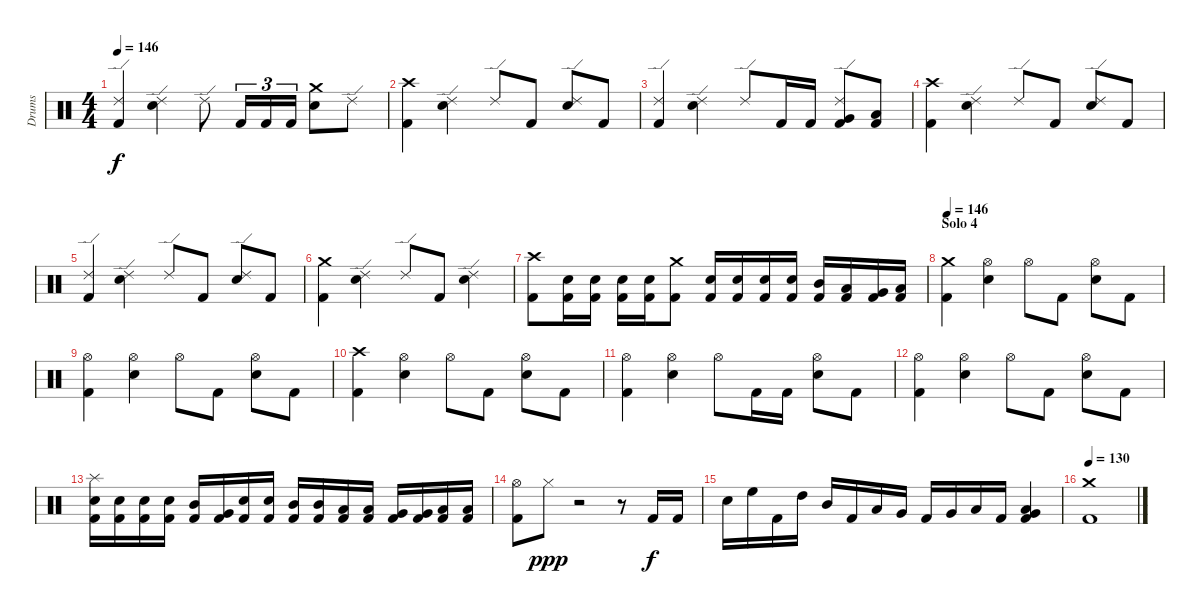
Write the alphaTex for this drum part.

\track ("Drums" "Drums") {instrument percussion}
\staff {score}
\articulation defaults
\ts (4 4)
\tempo 146
\clef neutral
\ks c
("Kick (hit) 2" "Ride (edge) 2").4{dy f} ("Snare (hit) 2" "Ride (edge) 2").4 "Ride (edge) 2".8 "Kick (hit) 2".16{tu (3 2)} "Kick (hit) 2".16{tu (3 2)} "Kick (hit) 2".16{tu (3 2)} ("Snare (hit) 2" "Crash medium (hit)").8 "Ride (edge) 2".8 |
("Kick (hit) 2" "Crash high (hit)").4 ("Snare (hit) 2" "Ride (edge) 2").4 "Ride (edge) 2".8 "Kick (hit) 2".8 ("Snare (hit) 2" "Ride (edge) 2").8 "Kick (hit) 2".8 |
("Kick (hit) 2" "Ride (edge) 2").4 ("Snare (hit) 2" "Ride (edge) 2").4 "Ride (edge) 2".8 "Kick (hit) 2".16 "Kick (hit) 2".16 ("Kick (hit) 2" "Very Low Tom (hit)" "Ride (edge) 2").8 ("Kick (hit) 2" "Low Floor Tom (hit)").8 |
("Kick (hit) 2" "Crash high (hit)").4 ("Snare (hit) 2" "Ride (edge) 2").4 "Ride (edge) 2".8 "Kick (hit) 2".8 ("Snare (hit) 2" "Ride (edge) 2").8 "Kick (hit) 2".8 |
("Kick (hit) 2" "Ride (edge) 2").4 ("Snare (hit) 2" "Ride (edge) 2").4 "Ride (edge) 2".8 "Kick (hit) 2".8 ("Snare (hit) 2" "Ride (edge) 2").8 "Kick (hit) 2".8 |
("Kick (hit) 2" "Crash medium (hit)").4 ("Snare (hit) 2" "Ride (edge) 2").4 "Ride (edge) 2".8 "Kick (hit) 2".8 ("Snare (hit) 2" "Ride (edge) 2").4 |
("Kick (hit) 2" "Crash high (hit)").8 ("Kick (hit) 2" "Snare (hit) 2").16 ("Kick (hit) 2" "Snare (hit) 2").16 ("Kick (hit) 2" "Snare (hit) 2").16 ("Kick (hit) 2" "Snare (hit) 2").16 ("Kick (hit) 2" "Crash medium (hit)").8 ("Kick (hit) 2" "Snare (hit) 2").16 ("Kick (hit) 2" "Snare (hit) 2").16 ("Kick (hit) 2" "Snare (hit) 2").16 ("Kick (hit) 2" "Snare (hit) 2").16 ("Kick (hit) 2" "Mid Tom (hit)").16 ("Kick (hit) 2" "Low Tom (hit)").16 ("Kick (hit) 2" "Very Low Tom (hit)").16 ("Kick (hit) 2" "Low Floor Tom (hit)").16 |
\section ("" "Solo 4")
\tempo 146
("Kick (hit) 2" "Crash medium (hit)").4 ("Snare (hit) 2" "Hi-Hat (open)").4 "Hi-Hat (open)".8 "Kick (hit) 2".8 ("Snare (hit) 2" "Hi-Hat (open)").8 "Kick (hit) 2".8 |
("Kick (hit) 2" "Hi-Hat (open)").4 ("Snare (hit) 2" "Hi-Hat (open)").4 "Hi-Hat (open)".8 "Kick (hit) 2".8 ("Snare (hit) 2" "Hi-Hat (open)").8 "Kick (hit) 2".8 |
("Kick (hit) 2" "Crash high (hit)").4 ("Snare (hit) 2" "Hi-Hat (open)").4 "Hi-Hat (open)".8 "Kick (hit) 2".8 ("Snare (hit) 2" "Hi-Hat (open)").8 "Kick (hit) 2".8 |
("Kick (hit) 2" "Hi-Hat (open)").4 ("Snare (hit) 2" "Hi-Hat (open)").4 "Hi-Hat (open)".8 "Kick (hit) 2".16 "Kick (hit) 2".16 ("Snare (hit) 2" "Hi-Hat (open)").8 "Kick (hit) 2".8 |
("Kick (hit) 2" "Hi-Hat (open)").4 ("Snare (hit) 2" "Hi-Hat (open)").4 "Hi-Hat (open)".8 "Kick (hit) 2".8 ("Snare (hit) 2" "Hi-Hat (open)").8 "Kick (hit) 2".8 |
("Kick (hit) 2" "Snare (hit) 2" "Splash (hit)").16 ("Kick (hit) 2" "Snare (hit) 2").16 ("Kick (hit) 2" "Snare (hit) 2").16 ("Kick (hit) 2" "Snare (hit) 2").16 ("Kick (hit) 2" "Mid Tom (hit)").16 ("Kick (hit) 2" "Very Low Tom (hit)").16 ("Kick (hit) 2" "Snare (hit) 2").16 ("Kick (hit) 2" "Snare (hit) 2").16 ("Kick (hit) 2" "Mid Tom (hit)").16 ("Kick (hit) 2" "Mid Tom (hit)").16 ("Kick (hit) 2" "Low Tom (hit)").16 ("Kick (hit) 2" "Low Tom (hit)").16 ("Kick (hit) 2" "Very Low Tom (hit)").16 ("Kick (hit) 2" "Very Low Tom (hit)").16 ("Kick (hit) 2" "Low Floor Tom (hit)").16 ("Kick (hit) 2" "Low Floor Tom (hit)").16 |
("Kick (hit) 2" "Hi-Hat (open)").8 "Hi-Hat (closed)".8{dy ppp} r.2 r.8 "Kick (hit) 2".16{dy f} "Kick (hit) 2".16 |
"Snare (hit) 2".16 "High Floor Tom (hit)".16 "Kick (hit) 2".16 "High Tom (hit)".16 "Mid Tom (hit)".16 "Kick (hit) 2".16 "Low Tom (hit)".16 "Very Low Tom (hit)".16 "Kick (hit) 2".16 "Very Low Tom (hit)".16 "Low Floor Tom (hit)".16 "Kick (hit) 2".16 ("Kick (hit) 2" "Low Floor Tom (hit)" "Very Low Tom (hit)").4 |
\section ("" "")
\tempo 131
\tempo 130
("Kick (hit) 2" "Crash medium (hit)").1
